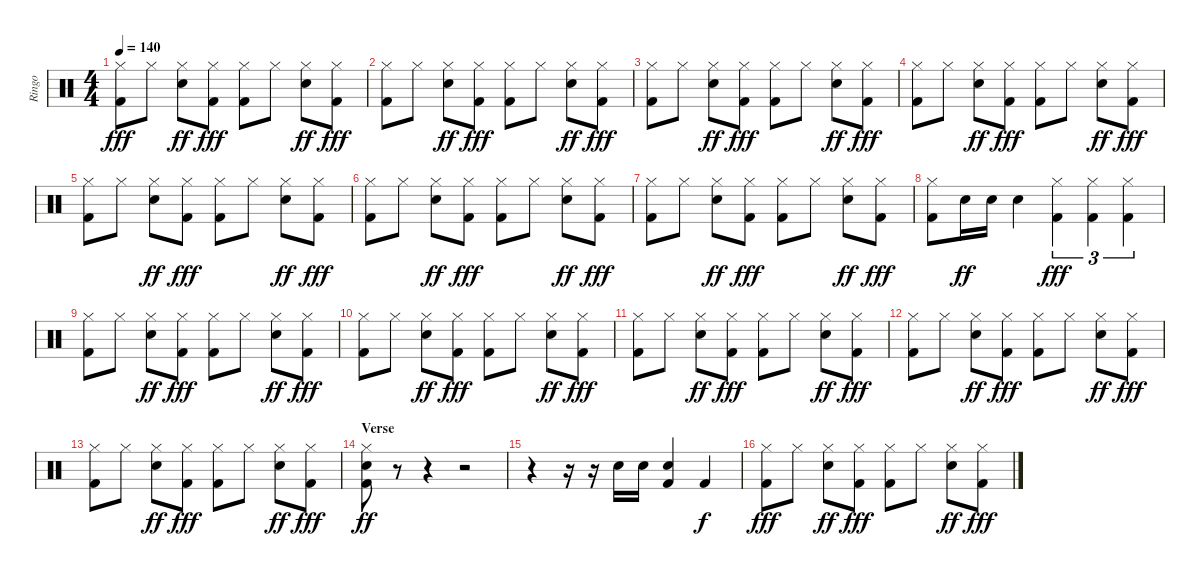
\track ("Ringo" "Ringo") {instrument percussion}
\staff {score}
\articulation defaults
\ts (4 4)
\tempo 140
\clef neutral
\ks c
("Hi-Hat (closed)" "Kick (hit) 2").8{dy fff} "Hi-Hat (closed)".8 ("Hi-Hat (closed)" "Snare (hit) 2").8{dy ff} ("Hi-Hat (closed)" "Kick (hit) 2").8{dy fff} ("Hi-Hat (closed)" "Kick (hit) 2").8 "Hi-Hat (closed)".8 ("Hi-Hat (closed)" "Snare (hit) 2").8{dy ff} ("Hi-Hat (closed)" "Kick (hit) 2").8{dy fff} |
("Hi-Hat (closed)" "Kick (hit) 2").8 "Hi-Hat (closed)".8 ("Hi-Hat (closed)" "Snare (hit) 2").8{dy ff} ("Hi-Hat (closed)" "Kick (hit) 2").8{dy fff} ("Hi-Hat (closed)" "Kick (hit) 2").8 "Hi-Hat (closed)".8 ("Hi-Hat (closed)" "Snare (hit) 2").8{dy ff} ("Hi-Hat (closed)" "Kick (hit) 2").8{dy fff} |
("Hi-Hat (closed)" "Kick (hit) 2").8 "Hi-Hat (closed)".8 ("Hi-Hat (closed)" "Snare (hit) 2").8{dy ff} ("Hi-Hat (closed)" "Kick (hit) 2").8{dy fff} ("Hi-Hat (closed)" "Kick (hit) 2").8 "Hi-Hat (closed)".8 ("Hi-Hat (closed)" "Snare (hit) 2").8{dy ff} ("Hi-Hat (closed)" "Kick (hit) 2").8{dy fff} |
("Hi-Hat (closed)" "Kick (hit) 2").8 "Hi-Hat (closed)".8 ("Hi-Hat (closed)" "Snare (hit) 2").8{dy ff} ("Hi-Hat (closed)" "Kick (hit) 2").8{dy fff} ("Hi-Hat (closed)" "Kick (hit) 2").8 "Hi-Hat (closed)".8 ("Hi-Hat (closed)" "Snare (hit) 2").8{dy ff} ("Hi-Hat (closed)" "Kick (hit) 2").8{dy fff} |
("Hi-Hat (closed)" "Kick (hit) 2").8 "Hi-Hat (closed)".8 ("Hi-Hat (closed)" "Snare (hit) 2").8{dy ff} ("Hi-Hat (closed)" "Kick (hit) 2").8{dy fff} ("Hi-Hat (closed)" "Kick (hit) 2").8 "Hi-Hat (closed)".8 ("Hi-Hat (closed)" "Snare (hit) 2").8{dy ff} ("Hi-Hat (closed)" "Kick (hit) 2").8{dy fff} |
("Hi-Hat (closed)" "Kick (hit) 2").8 "Hi-Hat (closed)".8 ("Hi-Hat (closed)" "Snare (hit) 2").8{dy ff} ("Hi-Hat (closed)" "Kick (hit) 2").8{dy fff} ("Hi-Hat (closed)" "Kick (hit) 2").8 "Hi-Hat (closed)".8 ("Hi-Hat (closed)" "Snare (hit) 2").8{dy ff} ("Hi-Hat (closed)" "Kick (hit) 2").8{dy fff} |
("Hi-Hat (closed)" "Kick (hit) 2").8 "Hi-Hat (closed)".8 ("Hi-Hat (closed)" "Snare (hit) 2").8{dy ff} ("Hi-Hat (closed)" "Kick (hit) 2").8{dy fff} ("Hi-Hat (closed)" "Kick (hit) 2").8 "Hi-Hat (closed)".8 ("Hi-Hat (closed)" "Snare (hit) 2").8{dy ff} ("Hi-Hat (closed)" "Kick (hit) 2").8{dy fff} |
("Hi-Hat (closed)" "Kick (hit) 2").8 "Snare (hit) 2".16{dy ff} "Snare (hit) 2".16 "Snare (hit) 2".4 ("Hi-Hat (closed)" "Kick (hit) 2").4{tu (3 2) dy fff} ("Hi-Hat (closed)" "Kick (hit) 2").4{tu (3 2)} ("Hi-Hat (closed)" "Kick (hit) 2").4{tu (3 2)} |
("Hi-Hat (closed)" "Kick (hit) 2").8 "Hi-Hat (closed)".8 ("Hi-Hat (closed)" "Snare (hit) 2").8{dy ff} ("Hi-Hat (closed)" "Kick (hit) 2").8{dy fff} ("Hi-Hat (closed)" "Kick (hit) 2").8 "Hi-Hat (closed)".8 ("Hi-Hat (closed)" "Snare (hit) 2").8{dy ff} ("Hi-Hat (closed)" "Kick (hit) 2").8{dy fff} |
("Hi-Hat (closed)" "Kick (hit) 2").8 "Hi-Hat (closed)".8 ("Hi-Hat (closed)" "Snare (hit) 2").8{dy ff} ("Hi-Hat (closed)" "Kick (hit) 2").8{dy fff} ("Hi-Hat (closed)" "Kick (hit) 2").8 "Hi-Hat (closed)".8 ("Hi-Hat (closed)" "Snare (hit) 2").8{dy ff} ("Hi-Hat (closed)" "Kick (hit) 2").8{dy fff} |
("Hi-Hat (closed)" "Kick (hit) 2").8 "Hi-Hat (closed)".8 ("Hi-Hat (closed)" "Snare (hit) 2").8{dy ff} ("Hi-Hat (closed)" "Kick (hit) 2").8{dy fff} ("Hi-Hat (closed)" "Kick (hit) 2").8 "Hi-Hat (closed)".8 ("Hi-Hat (closed)" "Snare (hit) 2").8{dy ff} ("Hi-Hat (closed)" "Kick (hit) 2").8{dy fff} |
("Hi-Hat (closed)" "Kick (hit) 2").8 "Hi-Hat (closed)".8 ("Hi-Hat (closed)" "Snare (hit) 2").8{dy ff} ("Hi-Hat (closed)" "Kick (hit) 2").8{dy fff} ("Hi-Hat (closed)" "Kick (hit) 2").8 "Hi-Hat (closed)".8 ("Hi-Hat (closed)" "Snare (hit) 2").8{dy ff} ("Hi-Hat (closed)" "Kick (hit) 2").8{dy fff} |
("Hi-Hat (closed)" "Kick (hit) 2").8 "Hi-Hat (closed)".8 ("Hi-Hat (closed)" "Snare (hit) 2").8{dy ff} ("Hi-Hat (closed)" "Kick (hit) 2").8{dy fff} ("Hi-Hat (closed)" "Kick (hit) 2").8 "Hi-Hat (closed)".8 ("Hi-Hat (closed)" "Snare (hit) 2").8{dy ff} ("Hi-Hat (closed)" "Kick (hit) 2").8{dy fff} |
\section ("" "Verse")
("Hi-Hat (closed)" "Snare (hit) 2" "Kick (hit) 2").8{dy ff} r.8 r.4 r.2 |
r.4 r.16 r.16 "Snare (hit) 2".16 "Snare (hit) 2".16 ("Snare (hit) 2" "Kick (hit) 2").4 "Kick (hit) 2".4{dy f} |
("Hi-Hat (closed)" "Kick (hit) 2").8{dy fff} "Hi-Hat (closed)".8 ("Hi-Hat (closed)" "Snare (hit) 2").8{dy ff} ("Hi-Hat (closed)" "Kick (hit) 2").8{dy fff} ("Hi-Hat (closed)" "Kick (hit) 2").8 "Hi-Hat (closed)".8 ("Hi-Hat (closed)" "Snare (hit) 2").8{dy ff} ("Hi-Hat (closed)" "Kick (hit) 2").8{dy fff}
